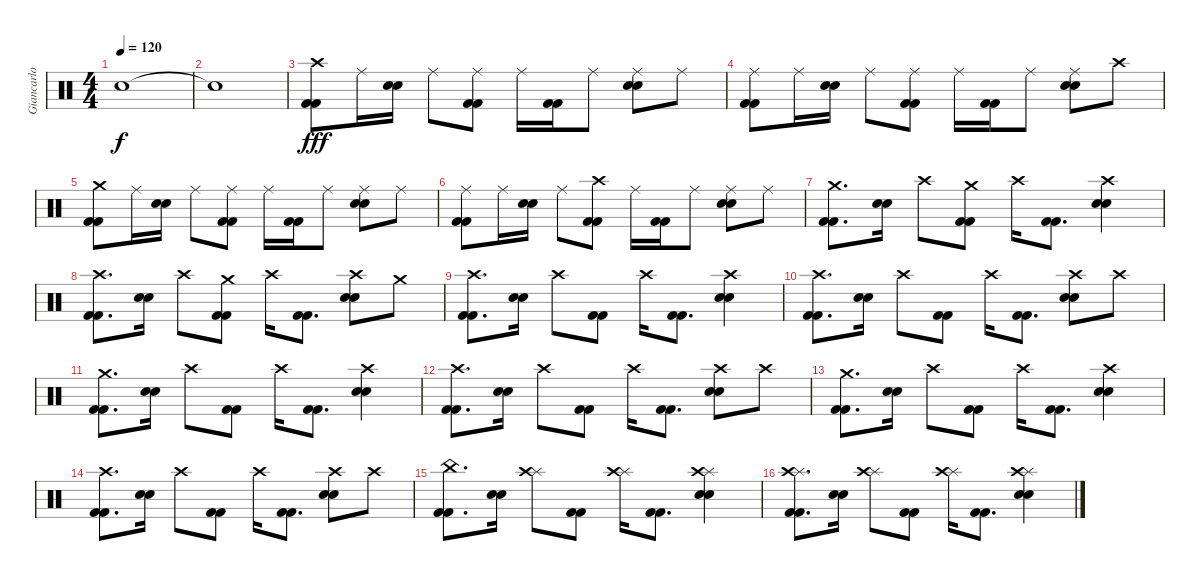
\track ("Giancarlo Autenzio - Drums" "Giancarlo ") {instrument percussion}
\staff {score}
\articulation defaults
\ts (4 4)
\tempo 120
\clef neutral
\ks c "Snare (hit)"{t}.1{dy f}
|
"Snare (hit)"{t}.1 |
("Kick (hit) 2" "Kick (hit) 2" "Crash high (hit)").8{dy fff} "Ride (middle)".16 ("Electric Snare (hit)" "Electric Snare (hit)").16 "Ride (middle)".8 ("Kick (hit) 2" "Kick (hit) 2" "Ride (middle)").8 "Ride (middle)".16 ("Kick (hit) 2" "Kick (hit) 2").16 "Ride (middle)".8 ("Electric Snare (hit)" "Electric Snare (hit)" "Ride (middle)").8 "Ride (middle)".8 |
("Kick (hit) 2" "Kick (hit) 2" "Ride (middle)").8 "Ride (middle)".16 ("Electric Snare (hit)" "Electric Snare (hit)").16 "Ride (middle)".8 ("Kick (hit) 2" "Kick (hit) 2" "Ride (middle)").8 "Ride (middle)".16 ("Kick (hit) 2" "Kick (hit) 2").16 "Ride (middle)".8 ("Electric Snare (hit)" "Electric Snare (hit)" "Ride (middle)").8 "Crash high (hit)".8 |
("Kick (hit) 2" "Kick (hit) 2" "Crash medium (hit)").8 "Ride (middle)".16 ("Electric Snare (hit)" "Electric Snare (hit)").16 "Ride (middle)".8 ("Kick (hit) 2" "Kick (hit) 2" "Ride (middle)").8 "Ride (middle)".16 ("Kick (hit) 2" "Kick (hit) 2").16 "Ride (middle)".8 ("Electric Snare (hit)" "Electric Snare (hit)" "Ride (middle)").8 "Ride (middle)".8 |
("Kick (hit) 2" "Kick (hit) 2" "Ride (middle)").8 "Ride (middle)".16 ("Electric Snare (hit)" "Electric Snare (hit)").16 "Ride (middle)".8 ("Kick (hit) 2" "Kick (hit) 2" "Crash high (hit)").8 "Ride (middle)".16 ("Kick (hit) 2" "Kick (hit) 2").16 "Ride (middle)".8 ("Electric Snare (hit)" "Electric Snare (hit)" "Ride (middle)").8 "Ride (middle)".8 |
("Kick (hit) 2" "Kick (hit) 2" "Crash medium (hit)").8{d} ("Electric Snare (hit)" "Electric Snare (hit)").16 "Crash high (hit)".8 ("Kick (hit) 2" "Kick (hit) 2" "Crash medium (hit)").8 "Crash high (hit)".16 ("Kick (hit) 2" "Kick (hit) 2").8{d} ("Electric Snare (hit)" "Electric Snare (hit)" "Crash high (hit)").4 |
("Kick (hit) 2" "Kick (hit) 2" "Crash high (hit)").8{d} ("Electric Snare (hit)" "Electric Snare (hit)").16 "Crash high (hit)".8 ("Kick (hit) 2" "Kick (hit) 2" "Crash medium (hit)").8 "Crash high (hit)".16 ("Kick (hit) 2" "Kick (hit) 2").8{d} ("Electric Snare (hit)" "Electric Snare (hit)" "Crash high (hit)").8 "Crash medium (hit)".8 |
("Kick (hit) 2" "Kick (hit) 2" "Crash high (hit)").8{d} ("Electric Snare (hit)" "Electric Snare (hit)").16 "Crash high (hit)".8 ("Kick (hit) 2" "Kick (hit) 2").8 "Crash high (hit)".16 ("Kick (hit) 2" "Kick (hit) 2").8{d} ("Electric Snare (hit)" "Electric Snare (hit)" "Crash high (hit)").4 |
("Kick (hit) 2" "Kick (hit) 2" "Crash high (hit)").8{d} ("Electric Snare (hit)" "Electric Snare (hit)").16 "Crash high (hit)".8 ("Kick (hit) 2" "Kick (hit) 2").8 "Crash high (hit)".16 ("Kick (hit) 2" "Kick (hit) 2").8{d} ("Electric Snare (hit)" "Electric Snare (hit)" "Crash high (hit)").8 "Crash high (hit)".8 |
("Kick (hit) 2" "Kick (hit) 2" "Crash medium (hit)").8{d} ("Electric Snare (hit)" "Electric Snare (hit)").16 "Crash high (hit)".8 ("Kick (hit) 2" "Kick (hit) 2").8 "Crash high (hit)".16 ("Kick (hit) 2" "Kick (hit) 2").8{d} ("Electric Snare (hit)" "Electric Snare (hit)" "Crash high (hit)").4 |
("Kick (hit) 2" "Kick (hit) 2" "Crash high (hit)").8{d} ("Electric Snare (hit)" "Electric Snare (hit)").16 "Crash high (hit)".8 ("Kick (hit) 2" "Kick (hit) 2").8 "Crash high (hit)".16 ("Kick (hit) 2" "Kick (hit) 2").8{d} ("Electric Snare (hit)" "Electric Snare (hit)" "Crash high (hit)").8 "Crash high (hit)".8 |
("Kick (hit) 2" "Kick (hit) 2" "Crash medium (hit)").8{d} ("Electric Snare (hit)" "Electric Snare (hit)").16 "Crash high (hit)".8 ("Kick (hit) 2" "Kick (hit) 2").8 "Crash high (hit)".16 ("Kick (hit) 2" "Kick (hit) 2").8{d} ("Electric Snare (hit)" "Electric Snare (hit)" "Crash high (hit)").4 |
("Kick (hit) 2" "Kick (hit) 2" "Crash high (hit)").8{d} ("Electric Snare (hit)" "Electric Snare (hit)").16 "Crash high (hit)".8 ("Kick (hit) 2" "Kick (hit) 2").8 "Crash high (hit)".16 ("Kick (hit) 2" "Kick (hit) 2").8{d} ("Electric Snare (hit)" "Electric Snare (hit)" "Crash high (hit)").8 "Crash high (hit)".8 |
("Kick (hit) 2" "Kick (hit) 2" "China (hit)").8{d} ("Electric Snare (hit)" "Electric Snare (hit)").16 ("Splash (hit)" "Crash high (hit)").8 ("Kick (hit) 2" "Kick (hit) 2").8 ("Splash (hit)" "Crash high (hit)").16 ("Kick (hit) 2" "Kick (hit) 2").8{d} ("Electric Snare (hit)" "Electric Snare (hit)" "Splash (hit)" "Crash high (hit)").4 |
("Kick (hit) 2" "Kick (hit) 2" "Splash (hit)" "Crash high (hit)").8{d} ("Electric Snare (hit)" "Electric Snare (hit)").16 ("Splash (hit)" "Crash high (hit)").8 ("Kick (hit) 2" "Kick (hit) 2").8 ("Splash (hit)" "Crash high (hit)").16 ("Kick (hit) 2" "Kick (hit) 2").8{d} ("Electric Snare (hit)" "Electric Snare (hit)" "Splash (hit)" "Crash high (hit)").4
